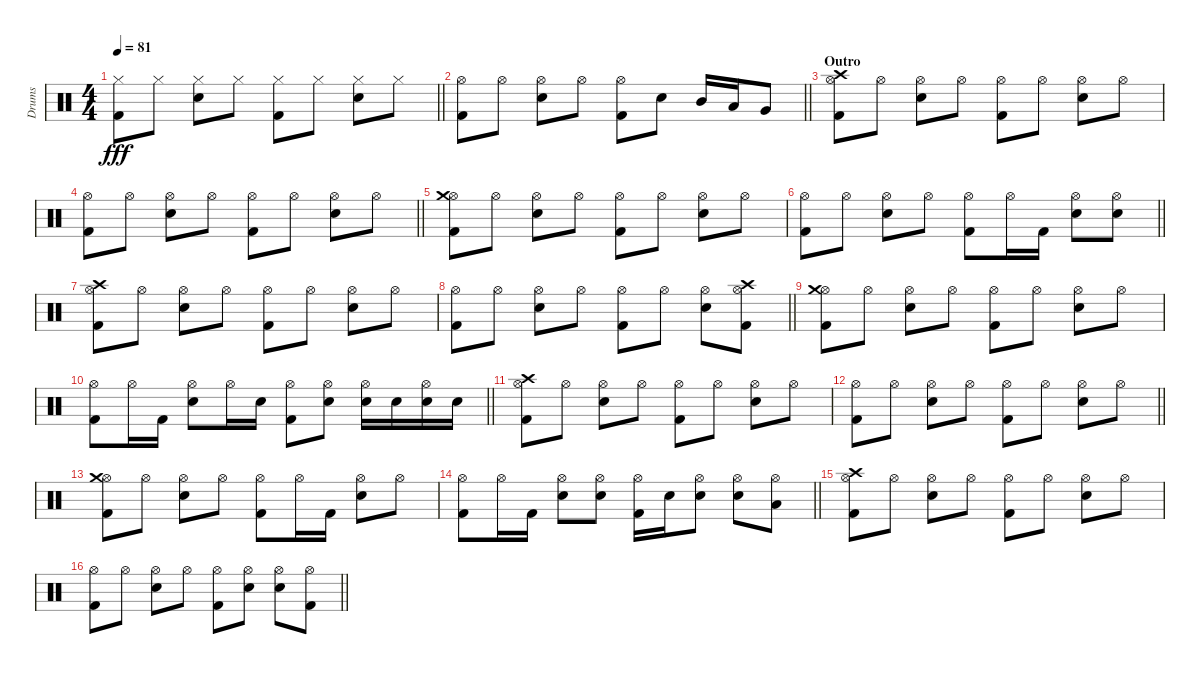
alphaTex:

\track ("Drums" "Drums") {instrument percussion}
\staff {score}
\articulation defaults
\ts (4 4)
\tempo 81
\clef neutral
\barLineRight lightlight
\ks c
("Hi-Hat (closed)" "Kick (hit) 2").8{dy fff} "Hi-Hat (closed)".8 ("Hi-Hat (closed)" "Electric Snare (hit)").8 "Hi-Hat (closed)".8 ("Hi-Hat (closed)" "Kick (hit) 2").8 "Hi-Hat (closed)".8 ("Hi-Hat (closed)" "Electric Snare (hit)").8 "Hi-Hat (closed)".8 |
\barLineRight lightlight
("Hi-Hat (open)" "Kick (hit) 2").8 "Hi-Hat (open)".8 ("Hi-Hat (open)" "Electric Snare (hit)").8 "Hi-Hat (open)".8 ("Hi-Hat (open)" "Kick (hit) 2").8 "Electric Snare (hit)".8 "Mid Tom (hit)".16 "Low Tom (hit)".16 "Very Low Tom (hit)".8 |
\section ("" "Outro")
("Hi-Hat (open)" "Crash high (hit)" "Kick (hit) 2").8 "Hi-Hat (open)".8 ("Hi-Hat (open)" "Electric Snare (hit)").8 "Hi-Hat (open)".8 ("Hi-Hat (open)" "Kick (hit) 2").8 "Hi-Hat (open)".8 ("Hi-Hat (open)" "Electric Snare (hit)").8 "Hi-Hat (open)".8 |
\barLineRight lightlight
("Hi-Hat (open)" "Kick (hit) 2").8 "Hi-Hat (open)".8 ("Hi-Hat (open)" "Electric Snare (hit)").8 "Hi-Hat (open)".8 ("Hi-Hat (open)" "Kick (hit) 2").8 "Hi-Hat (open)".8 ("Hi-Hat (open)" "Electric Snare (hit)").8 "Hi-Hat (open)".8 |
("Hi-Hat (open)" "Crash medium (hit)" "Kick (hit) 2").8 "Hi-Hat (open)".8 ("Hi-Hat (open)" "Electric Snare (hit)").8 "Hi-Hat (open)".8 ("Hi-Hat (open)" "Kick (hit) 2").8 "Hi-Hat (open)".8 ("Hi-Hat (open)" "Electric Snare (hit)").8 "Hi-Hat (open)".8 |
\barLineRight lightlight
("Hi-Hat (open)" "Kick (hit) 2").8 "Hi-Hat (open)".8 ("Hi-Hat (open)" "Electric Snare (hit)").8 "Hi-Hat (open)".8 ("Hi-Hat (open)" "Kick (hit) 2").8 "Hi-Hat (open)".16 "Kick (hit) 2".16 ("Hi-Hat (open)" "Electric Snare (hit)").8 ("Hi-Hat (open)" "Electric Snare (hit)").8 |
("Hi-Hat (open)" "Crash high (hit)" "Kick (hit) 2").8 "Hi-Hat (open)".8 ("Hi-Hat (open)" "Electric Snare (hit)").8 "Hi-Hat (open)".8 ("Hi-Hat (open)" "Kick (hit) 2").8 "Hi-Hat (open)".8 ("Hi-Hat (open)" "Electric Snare (hit)").8 "Hi-Hat (open)".8 |
\barLineRight lightlight
("Hi-Hat (open)" "Kick (hit) 2").8 "Hi-Hat (open)".8 ("Hi-Hat (open)" "Electric Snare (hit)").8 "Hi-Hat (open)".8 ("Hi-Hat (open)" "Kick (hit) 2").8 "Hi-Hat (open)".8 ("Hi-Hat (open)" "Electric Snare (hit)").8 ("Hi-Hat (open)" "Crash high (hit)" "Kick (hit) 2").8 |
("Hi-Hat (open)" "Crash medium (hit)" "Kick (hit) 2").8 "Hi-Hat (open)".8 ("Hi-Hat (open)" "Electric Snare (hit)").8 "Hi-Hat (open)".8 ("Hi-Hat (open)" "Kick (hit) 2").8 "Hi-Hat (open)".8 ("Hi-Hat (open)" "Electric Snare (hit)").8 "Hi-Hat (open)".8 |
\barLineRight lightlight
("Hi-Hat (open)" "Kick (hit) 2").8 "Hi-Hat (open)".16 "Kick (hit) 2".16 ("Hi-Hat (open)" "Electric Snare (hit)").8 "Hi-Hat (open)".16 "Electric Snare (hit)".16 ("Hi-Hat (open)" "Kick (hit) 2").8 ("Hi-Hat (open)" "Electric Snare (hit)").8 ("Hi-Hat (open)" "Electric Snare (hit)").16 "Electric Snare (hit)".16 ("Hi-Hat (open)" "Electric Snare (hit)").16 "Electric Snare (hit)".16 |
("Hi-Hat (open)" "Crash high (hit)" "Kick (hit) 2").8 "Hi-Hat (open)".8 ("Hi-Hat (open)" "Electric Snare (hit)").8 "Hi-Hat (open)".8 ("Hi-Hat (open)" "Kick (hit) 2").8 "Hi-Hat (open)".8 ("Hi-Hat (open)" "Electric Snare (hit)").8 "Hi-Hat (open)".8 |
\barLineRight lightlight
("Hi-Hat (open)" "Kick (hit) 2").8 "Hi-Hat (open)".8 ("Hi-Hat (open)" "Electric Snare (hit)").8 "Hi-Hat (open)".8 ("Hi-Hat (open)" "Kick (hit) 2").8 "Hi-Hat (open)".8 ("Hi-Hat (open)" "Electric Snare (hit)").8 "Hi-Hat (open)".8 |
("Hi-Hat (open)" "Crash medium (hit)" "Kick (hit) 2").8 "Hi-Hat (open)".8 ("Hi-Hat (open)" "Electric Snare (hit)").8 "Hi-Hat (open)".8 ("Hi-Hat (open)" "Kick (hit) 2").8 "Hi-Hat (open)".16 "Kick (hit) 2".16 ("Hi-Hat (open)" "Electric Snare (hit)").8 "Hi-Hat (open)".8 |
\barLineRight lightlight
("Hi-Hat (open)" "Kick (hit) 2").8 "Hi-Hat (open)".16 "Kick (hit) 2".16 ("Hi-Hat (open)" "Electric Snare (hit)").8 ("Hi-Hat (open)" "Electric Snare (hit)").8 ("Hi-Hat (open)" "Kick (hit) 2").16 "Electric Snare (hit)".16 ("Hi-Hat (open)" "Electric Snare (hit)").8 ("Hi-Hat (open)" "Electric Snare (hit)").8 ("Hi-Hat (open)" "Low Tom (hit)").8 |
("Hi-Hat (open)" "Crash high (hit)" "Kick (hit) 2").8 "Hi-Hat (open)".8 ("Hi-Hat (open)" "Electric Snare (hit)").8 "Hi-Hat (open)".8 ("Hi-Hat (open)" "Kick (hit) 2").8 "Hi-Hat (open)".8 ("Hi-Hat (open)" "Electric Snare (hit)").8 "Hi-Hat (open)".8 |
\barLineRight lightlight
("Hi-Hat (open)" "Kick (hit) 2").8 "Hi-Hat (open)".8 ("Hi-Hat (open)" "Electric Snare (hit)").8 "Hi-Hat (open)".8 ("Hi-Hat (open)" "Kick (hit) 2").8 ("Hi-Hat (open)" "Electric Snare (hit)").8 ("Hi-Hat (open)" "Electric Snare (hit)").8 ("Hi-Hat (open)" "Kick (hit) 2").8
